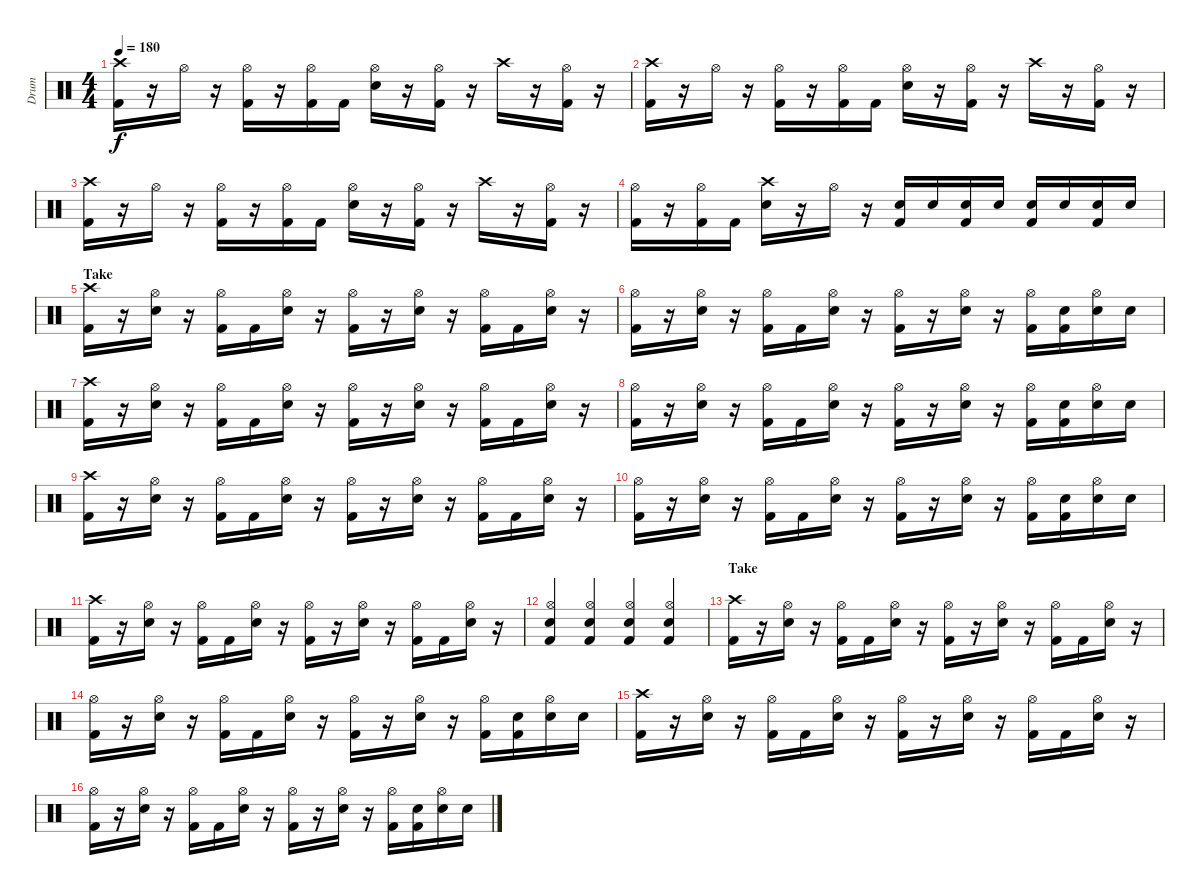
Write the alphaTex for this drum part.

\track ("Drum" "Drum") {instrument percussion}
\staff {score}
\articulation defaults
\ts (4 4)
\tempo 180
\clef neutral
\ks c
("Crash high (hit)" "Kick (hit) 2").16{dy f} r.16 "Hi-Hat (open)".16 r.16 ("Hi-Hat (open)" "Kick (hit) 2").16 r.16 ("Hi-Hat (open)" "Kick (hit) 2").16 "Kick (hit) 2".16 ("Hi-Hat (open)" "Electric Snare (hit)").16 r.16 ("Hi-Hat (open)" "Kick (hit) 2").16 r.16 "Crash high (hit)".16 r.16 ("Hi-Hat (open)" "Kick (hit) 2").16 r.16 |
("Crash high (hit)" "Kick (hit) 2").16 r.16 "Hi-Hat (open)".16 r.16 ("Hi-Hat (open)" "Kick (hit) 2").16 r.16 ("Hi-Hat (open)" "Kick (hit) 2").16 "Kick (hit) 2".16 ("Hi-Hat (open)" "Electric Snare (hit)").16 r.16 ("Hi-Hat (open)" "Kick (hit) 2").16 r.16 "Crash high (hit)".16 r.16 ("Hi-Hat (open)" "Kick (hit) 2").16 r.16 |
("Crash high (hit)" "Kick (hit) 2").16 r.16 "Hi-Hat (open)".16 r.16 ("Hi-Hat (open)" "Kick (hit) 2").16 r.16 ("Hi-Hat (open)" "Kick (hit) 2").16 "Kick (hit) 2".16 ("Hi-Hat (open)" "Electric Snare (hit)").16 r.16 ("Hi-Hat (open)" "Kick (hit) 2").16 r.16 "Crash high (hit)".16 r.16 ("Hi-Hat (open)" "Kick (hit) 2").16 r.16 |
("Hi-Hat (open)" "Kick (hit) 2").16 r.16 ("Hi-Hat (open)" "Kick (hit) 2").16 "Kick (hit) 2".16 ("Crash high (hit)" "Electric Snare (hit)").16 r.16 "Hi-Hat (open)".16 r.16 ("Electric Snare (hit)" "Kick (hit) 2").16 "Electric Snare (hit)".16 ("Electric Snare (hit)" "Kick (hit) 2").16 "Electric Snare (hit)".16 ("Electric Snare (hit)" "Kick (hit) 2").16 "Electric Snare (hit)".16 ("Electric Snare (hit)" "Kick (hit) 2").16 "Electric Snare (hit)".16 |
\section ("" "Take")
("Crash high (hit)" "Kick (hit) 2").16 r.16 ("Hi-Hat (open)" "Electric Snare (hit)").16 r.16 ("Hi-Hat (open)" "Kick (hit) 2").16 "Kick (hit) 2".16 ("Hi-Hat (open)" "Electric Snare (hit)").16 r.16 ("Hi-Hat (open)" "Kick (hit) 2").16 r.16 ("Hi-Hat (open)" "Electric Snare (hit)").16 r.16 ("Hi-Hat (open)" "Kick (hit) 2").16 "Kick (hit) 2".16 ("Hi-Hat (open)" "Electric Snare (hit)").16 r.16 |
("Hi-Hat (open)" "Kick (hit) 2").16 r.16 ("Hi-Hat (open)" "Electric Snare (hit)").16 r.16 ("Hi-Hat (open)" "Kick (hit) 2").16 "Kick (hit) 2".16 ("Hi-Hat (open)" "Electric Snare (hit)").16 r.16 ("Hi-Hat (open)" "Kick (hit) 2").16 r.16 ("Hi-Hat (open)" "Electric Snare (hit)").16 r.16 ("Hi-Hat (open)" "Kick (hit) 2").16 ("Electric Snare (hit)" "Kick (hit) 2").16 ("Hi-Hat (open)" "Electric Snare (hit)").16 "Electric Snare (hit)".16 |
("Crash high (hit)" "Kick (hit) 2").16 r.16 ("Hi-Hat (open)" "Electric Snare (hit)").16 r.16 ("Hi-Hat (open)" "Kick (hit) 2").16 "Kick (hit) 2".16 ("Hi-Hat (open)" "Electric Snare (hit)").16 r.16 ("Hi-Hat (open)" "Kick (hit) 2").16 r.16 ("Hi-Hat (open)" "Electric Snare (hit)").16 r.16 ("Hi-Hat (open)" "Kick (hit) 2").16 "Kick (hit) 2".16 ("Hi-Hat (open)" "Electric Snare (hit)").16 r.16 |
("Hi-Hat (open)" "Kick (hit) 2").16 r.16 ("Hi-Hat (open)" "Electric Snare (hit)").16 r.16 ("Hi-Hat (open)" "Kick (hit) 2").16 "Kick (hit) 2".16 ("Hi-Hat (open)" "Electric Snare (hit)").16 r.16 ("Hi-Hat (open)" "Kick (hit) 2").16 r.16 ("Hi-Hat (open)" "Electric Snare (hit)").16 r.16 ("Hi-Hat (open)" "Kick (hit) 2").16 ("Electric Snare (hit)" "Kick (hit) 2").16 ("Hi-Hat (open)" "Electric Snare (hit)").16 "Electric Snare (hit)".16 |
("Crash high (hit)" "Kick (hit) 2").16 r.16 ("Hi-Hat (open)" "Electric Snare (hit)").16 r.16 ("Hi-Hat (open)" "Kick (hit) 2").16 "Kick (hit) 2".16 ("Hi-Hat (open)" "Electric Snare (hit)").16 r.16 ("Hi-Hat (open)" "Kick (hit) 2").16 r.16 ("Hi-Hat (open)" "Electric Snare (hit)").16 r.16 ("Hi-Hat (open)" "Kick (hit) 2").16 "Kick (hit) 2".16 ("Hi-Hat (open)" "Electric Snare (hit)").16 r.16 |
("Hi-Hat (open)" "Kick (hit) 2").16 r.16 ("Hi-Hat (open)" "Electric Snare (hit)").16 r.16 ("Hi-Hat (open)" "Kick (hit) 2").16 "Kick (hit) 2".16 ("Hi-Hat (open)" "Electric Snare (hit)").16 r.16 ("Hi-Hat (open)" "Kick (hit) 2").16 r.16 ("Hi-Hat (open)" "Electric Snare (hit)").16 r.16 ("Hi-Hat (open)" "Kick (hit) 2").16 ("Electric Snare (hit)" "Kick (hit) 2").16 ("Hi-Hat (open)" "Electric Snare (hit)").16 "Electric Snare (hit)".16 |
("Crash high (hit)" "Kick (hit) 2").16 r.16 ("Hi-Hat (open)" "Electric Snare (hit)").16 r.16 ("Hi-Hat (open)" "Kick (hit) 2").16 "Kick (hit) 2".16 ("Hi-Hat (open)" "Electric Snare (hit)").16 r.16 ("Hi-Hat (open)" "Kick (hit) 2").16 r.16 ("Hi-Hat (open)" "Electric Snare (hit)").16 r.16 ("Hi-Hat (open)" "Kick (hit) 2").16 "Kick (hit) 2".16 ("Hi-Hat (open)" "Electric Snare (hit)").16 r.16 |
("Hi-Hat (open)" "Electric Snare (hit)" "Kick (hit) 2").4 ("Hi-Hat (open)" "Electric Snare (hit)" "Kick (hit) 2").4 ("Hi-Hat (open)" "Electric Snare (hit)" "Kick (hit) 2").4 ("Hi-Hat (open)" "Electric Snare (hit)" "Kick (hit) 2").4 |
\section ("" "Take")
("Crash high (hit)" "Kick (hit) 2").16 r.16 ("Hi-Hat (open)" "Electric Snare (hit)").16 r.16 ("Hi-Hat (open)" "Kick (hit) 2").16 "Kick (hit) 2".16 ("Hi-Hat (open)" "Electric Snare (hit)").16 r.16 ("Hi-Hat (open)" "Kick (hit) 2").16 r.16 ("Hi-Hat (open)" "Electric Snare (hit)").16 r.16 ("Hi-Hat (open)" "Kick (hit) 2").16 "Kick (hit) 2".16 ("Hi-Hat (open)" "Electric Snare (hit)").16 r.16 |
("Hi-Hat (open)" "Kick (hit) 2").16 r.16 ("Hi-Hat (open)" "Electric Snare (hit)").16 r.16 ("Hi-Hat (open)" "Kick (hit) 2").16 "Kick (hit) 2".16 ("Hi-Hat (open)" "Electric Snare (hit)").16 r.16 ("Hi-Hat (open)" "Kick (hit) 2").16 r.16 ("Hi-Hat (open)" "Electric Snare (hit)").16 r.16 ("Hi-Hat (open)" "Kick (hit) 2").16 ("Electric Snare (hit)" "Kick (hit) 2").16 ("Hi-Hat (open)" "Electric Snare (hit)").16 "Electric Snare (hit)".16 |
("Crash high (hit)" "Kick (hit) 2").16 r.16 ("Hi-Hat (open)" "Electric Snare (hit)").16 r.16 ("Hi-Hat (open)" "Kick (hit) 2").16 "Kick (hit) 2".16 ("Hi-Hat (open)" "Electric Snare (hit)").16 r.16 ("Hi-Hat (open)" "Kick (hit) 2").16 r.16 ("Hi-Hat (open)" "Electric Snare (hit)").16 r.16 ("Hi-Hat (open)" "Kick (hit) 2").16 "Kick (hit) 2".16 ("Hi-Hat (open)" "Electric Snare (hit)").16 r.16 |
("Hi-Hat (open)" "Kick (hit) 2").16 r.16 ("Hi-Hat (open)" "Electric Snare (hit)").16 r.16 ("Hi-Hat (open)" "Kick (hit) 2").16 "Kick (hit) 2".16 ("Hi-Hat (open)" "Electric Snare (hit)").16 r.16 ("Hi-Hat (open)" "Kick (hit) 2").16 r.16 ("Hi-Hat (open)" "Electric Snare (hit)").16 r.16 ("Hi-Hat (open)" "Kick (hit) 2").16 ("Electric Snare (hit)" "Kick (hit) 2").16 ("Hi-Hat (open)" "Electric Snare (hit)").16 "Electric Snare (hit)".16
